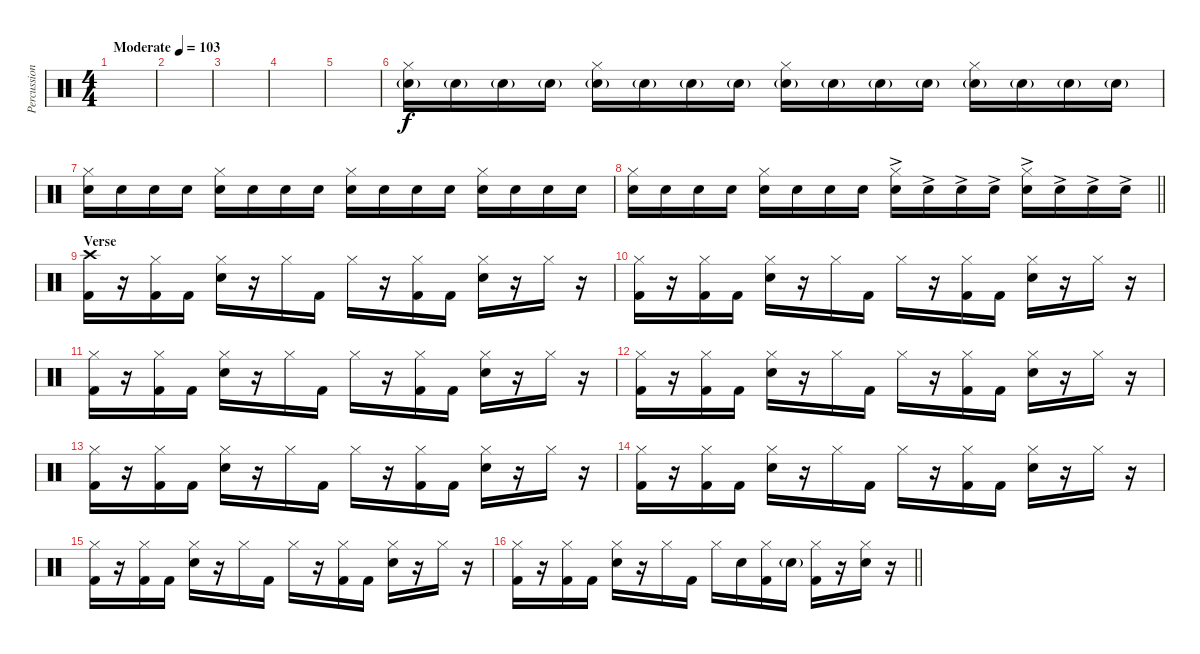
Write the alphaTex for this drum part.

\track ("Percussion" "Percussion") {instrument percussion}
\staff {score}
\articulation defaults
\ts (4 4)
\tempo (103 "Moderate")
\clef neutral
\ks c
|
|
|
|
|
("Hi-Hat (closed)" "Snare (hit) 2"{g}).16{volume 13} "Snare (hit) 2"{g}.16 "Snare (hit) 2"{g}.16 "Snare (hit) 2"{g}.16 ("Hi-Hat (closed)" "Snare (hit) 2"{g}).16 "Snare (hit) 2"{g}.16 "Snare (hit) 2"{g}.16 "Snare (hit) 2"{g}.16 ("Hi-Hat (closed)" "Snare (hit) 2"{g}).16 "Snare (hit) 2"{g}.16 "Snare (hit) 2"{g}.16 "Snare (hit) 2"{g}.16 ("Hi-Hat (closed)" "Snare (hit) 2"{g}).16 "Snare (hit) 2"{g}.16 "Snare (hit) 2"{g}.16 "Snare (hit) 2"{g}.16 |
("Hi-Hat (closed)" "Snare (hit) 2").16 "Snare (hit) 2".16 "Snare (hit) 2".16 "Snare (hit) 2".16 ("Hi-Hat (closed)" "Snare (hit) 2").16 "Snare (hit) 2".16 "Snare (hit) 2".16 "Snare (hit) 2".16 ("Hi-Hat (closed)" "Snare (hit) 2").16 "Snare (hit) 2".16 "Snare (hit) 2".16 "Snare (hit) 2".16 ("Hi-Hat (closed)" "Snare (hit) 2").16 "Snare (hit) 2".16 "Snare (hit) 2".16 "Snare (hit) 2".16 |
\barLineRight lightlight
("Hi-Hat (closed)" "Snare (hit) 2").16 "Snare (hit) 2".16 "Snare (hit) 2".16 "Snare (hit) 2".16 ("Hi-Hat (closed)" "Snare (hit) 2").16 "Snare (hit) 2".16 "Snare (hit) 2".16 "Snare (hit) 2".16 ("Hi-Hat (closed)" "Snare (hit) 2"{ac}).16 "Snare (hit) 2"{ac}.16 "Snare (hit) 2"{ac}.16 "Snare (hit) 2"{ac}.16 ("Hi-Hat (closed)" "Snare (hit) 2"{ac}).16 "Snare (hit) 2"{ac}.16 "Snare (hit) 2"{ac}.16 "Snare (hit) 2"{ac}.16 |
\section ("" "Verse")
("Crash high (hit)" "Kick (hit) 2").16 r.16 ("Hi-Hat (closed)" "Kick (hit) 2").16 "Kick (hit) 2".16 ("Hi-Hat (closed)" "Snare (hit) 2").16 r.16 "Hi-Hat (closed)".16 "Kick (hit) 2".16 "Hi-Hat (closed)".16 r.16 ("Hi-Hat (closed)" "Kick (hit) 2").16 "Kick (hit) 2".16 ("Hi-Hat (closed)" "Snare (hit) 2").16 r.16 "Hi-Hat (closed)".16 r.16 |
("Hi-Hat (closed)" "Kick (hit) 2").16 r.16 ("Hi-Hat (closed)" "Kick (hit) 2").16 "Kick (hit) 2".16 ("Hi-Hat (closed)" "Snare (hit) 2").16 r.16 "Hi-Hat (closed)".16 "Kick (hit) 2".16 "Hi-Hat (closed)".16 r.16 ("Hi-Hat (closed)" "Kick (hit) 2").16 "Kick (hit) 2".16 ("Hi-Hat (closed)" "Snare (hit) 2").16 r.16 "Hi-Hat (closed)".16 r.16 |
("Hi-Hat (closed)" "Kick (hit) 2").16 r.16 ("Hi-Hat (closed)" "Kick (hit) 2").16 "Kick (hit) 2".16 ("Hi-Hat (closed)" "Snare (hit) 2").16 r.16 "Hi-Hat (closed)".16 "Kick (hit) 2".16 "Hi-Hat (closed)".16 r.16 ("Hi-Hat (closed)" "Kick (hit) 2").16 "Kick (hit) 2".16 ("Hi-Hat (closed)" "Snare (hit) 2").16 r.16 "Hi-Hat (closed)".16 r.16 |
("Hi-Hat (closed)" "Kick (hit) 2").16 r.16 ("Hi-Hat (closed)" "Kick (hit) 2").16 "Kick (hit) 2".16 ("Hi-Hat (closed)" "Snare (hit) 2").16 r.16 "Hi-Hat (closed)".16 "Kick (hit) 2".16 "Hi-Hat (closed)".16 r.16 ("Hi-Hat (closed)" "Kick (hit) 2").16 "Kick (hit) 2".16 ("Hi-Hat (closed)" "Snare (hit) 2").16 r.16 "Hi-Hat (closed)".16 r.16 |
("Hi-Hat (closed)" "Kick (hit) 2").16 r.16 ("Hi-Hat (closed)" "Kick (hit) 2").16 "Kick (hit) 2".16 ("Hi-Hat (closed)" "Snare (hit) 2").16 r.16 "Hi-Hat (closed)".16 "Kick (hit) 2".16 "Hi-Hat (closed)".16 r.16 ("Hi-Hat (closed)" "Kick (hit) 2").16 "Kick (hit) 2".16 ("Hi-Hat (closed)" "Snare (hit) 2").16 r.16 "Hi-Hat (closed)".16 r.16 |
("Hi-Hat (closed)" "Kick (hit) 2").16 r.16 ("Hi-Hat (closed)" "Kick (hit) 2").16 "Kick (hit) 2".16 ("Hi-Hat (closed)" "Snare (hit) 2").16 r.16 "Hi-Hat (closed)".16 "Kick (hit) 2".16 "Hi-Hat (closed)".16 r.16 ("Hi-Hat (closed)" "Kick (hit) 2").16 "Kick (hit) 2".16 ("Hi-Hat (closed)" "Snare (hit) 2").16 r.16 "Hi-Hat (closed)".16 r.16 |
("Hi-Hat (closed)" "Kick (hit) 2").16 r.16 ("Hi-Hat (closed)" "Kick (hit) 2").16 "Kick (hit) 2".16 ("Hi-Hat (closed)" "Snare (hit) 2").16 r.16 "Hi-Hat (closed)".16 "Kick (hit) 2".16 "Hi-Hat (closed)".16 r.16 ("Hi-Hat (closed)" "Kick (hit) 2").16 "Kick (hit) 2".16 ("Hi-Hat (closed)" "Snare (hit) 2").16 r.16 "Hi-Hat (closed)".16 r.16 |
\barLineRight lightlight
("Hi-Hat (closed)" "Kick (hit) 2").16 r.16 ("Hi-Hat (closed)" "Kick (hit) 2").16 "Kick (hit) 2".16 ("Hi-Hat (closed)" "Snare (hit) 2").16 r.16 "Hi-Hat (closed)".16 "Kick (hit) 2".16 "Hi-Hat (closed)".16 "Snare (hit) 2".16 ("Hi-Hat (closed)" "Kick (hit) 2").16 "Snare (hit) 2"{g}.16 ("Hi-Hat (closed)" "Kick (hit) 2").16 r.16 ("Hi-Hat (closed)" "Snare (hit) 2").16 r.16
